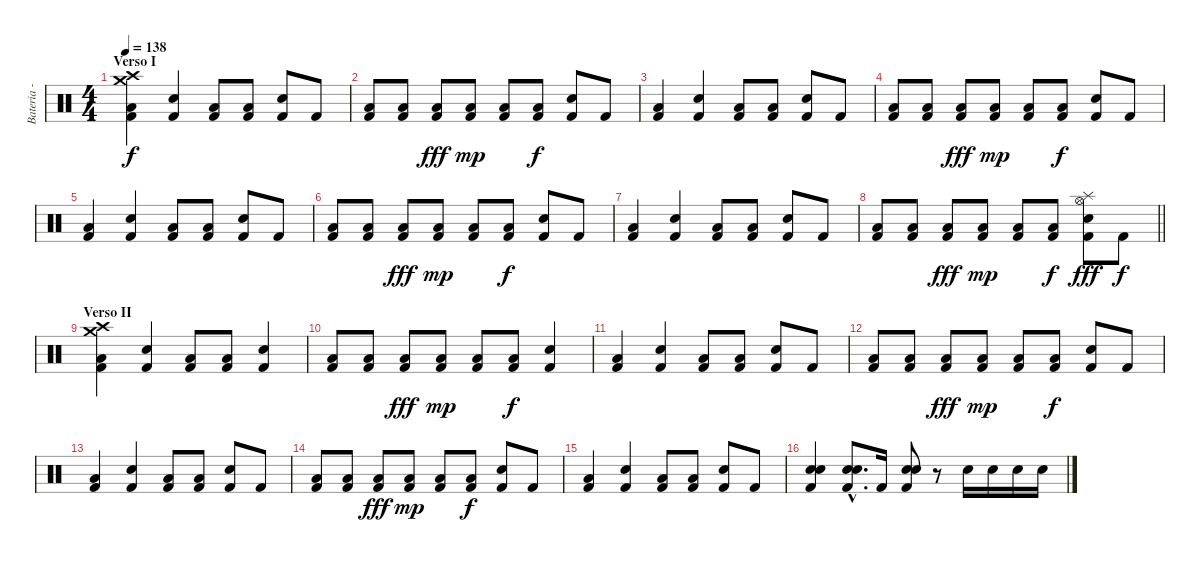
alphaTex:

\track ("Bateria - Larzon" "Bateria - ") {instrument percussion}
\staff {score}
\articulation defaults
\ts (4 4)
\section ("" "Verso I")
\tempo 138
\clef neutral
\ks c
("Low Floor Tom (hit)" "Kick (hit) 2" "Crash high (hit)" "Crash medium (hit)").4{dy f} ("Electric Snare (hit)" "Kick (hit) 2").4 ("Low Floor Tom (hit)" "Kick (hit) 2").8 ("Low Floor Tom (hit)" "Kick (hit) 2").8 ("Electric Snare (hit)" "Kick (hit) 2").8 "Kick (hit) 2".8 |
("Low Floor Tom (hit)" "Kick (hit) 2").8 ("Low Floor Tom (hit)" "Kick (hit) 2").8 ("Low Floor Tom (hit)" "Kick (hit) 2").8{dy fff} ("Low Floor Tom (hit)" "Kick (hit) 2").8{dy mp} ("Low Floor Tom (hit)" "Kick (hit) 2").8 ("Low Floor Tom (hit)" "Kick (hit) 2").8{dy f} ("Electric Snare (hit)" "Kick (hit) 2").8 "Kick (hit) 2".8 |
("Low Floor Tom (hit)" "Kick (hit) 2").4 ("Electric Snare (hit)" "Kick (hit) 2").4 ("Low Floor Tom (hit)" "Kick (hit) 2").8 ("Low Floor Tom (hit)" "Kick (hit) 2").8 ("Electric Snare (hit)" "Kick (hit) 2").8 "Kick (hit) 2".8 |
("Low Floor Tom (hit)" "Kick (hit) 2").8 ("Low Floor Tom (hit)" "Kick (hit) 2").8 ("Low Floor Tom (hit)" "Kick (hit) 2").8{dy fff} ("Low Floor Tom (hit)" "Kick (hit) 2").8{dy mp} ("Low Floor Tom (hit)" "Kick (hit) 2").8 ("Low Floor Tom (hit)" "Kick (hit) 2").8{dy f} ("Electric Snare (hit)" "Kick (hit) 2").8 "Kick (hit) 2".8 |
("Low Floor Tom (hit)" "Kick (hit) 2").4 ("Electric Snare (hit)" "Kick (hit) 2").4 ("Low Floor Tom (hit)" "Kick (hit) 2").8 ("Low Floor Tom (hit)" "Kick (hit) 2").8 ("Electric Snare (hit)" "Kick (hit) 2").8 "Kick (hit) 2".8 |
("Low Floor Tom (hit)" "Kick (hit) 2").8 ("Low Floor Tom (hit)" "Kick (hit) 2").8 ("Low Floor Tom (hit)" "Kick (hit) 2").8{dy fff} ("Low Floor Tom (hit)" "Kick (hit) 2").8{dy mp} ("Low Floor Tom (hit)" "Kick (hit) 2").8 ("Low Floor Tom (hit)" "Kick (hit) 2").8{dy f} ("Electric Snare (hit)" "Kick (hit) 2").8 "Kick (hit) 2".8 |
("Low Floor Tom (hit)" "Kick (hit) 2").4 ("Electric Snare (hit)" "Kick (hit) 2").4 ("Low Floor Tom (hit)" "Kick (hit) 2").8 ("Low Floor Tom (hit)" "Kick (hit) 2").8 ("Electric Snare (hit)" "Kick (hit) 2").8 "Kick (hit) 2".8 |
\barLineRight lightlight
("Low Floor Tom (hit)" "Kick (hit) 2").8 ("Low Floor Tom (hit)" "Kick (hit) 2").8 ("Low Floor Tom (hit)" "Kick (hit) 2").8{dy fff} ("Low Floor Tom (hit)" "Kick (hit) 2").8{dy mp} ("Low Floor Tom (hit)" "Kick (hit) 2").8 ("Low Floor Tom (hit)" "Kick (hit) 2").8{dy f} ("Electric Snare (hit)" "Kick (hit) 2" "Hi-Hat (open)" "Splash (hit)").8{dy fff} "Kick (hit) 2".8{dy f} |
\section ("" "Verso II")
("Low Floor Tom (hit)" "Kick (hit) 2" "Crash high (hit)" "Crash medium (hit)").4 ("Electric Snare (hit)" "Kick (hit) 2").4 ("Low Floor Tom (hit)" "Kick (hit) 2").8 ("Low Floor Tom (hit)" "Kick (hit) 2").8 ("Electric Snare (hit)" "Kick (hit) 2").4 |
("Low Floor Tom (hit)" "Kick (hit) 2").8 ("Low Floor Tom (hit)" "Kick (hit) 2").8 ("Low Floor Tom (hit)" "Kick (hit) 2").8{dy fff} ("Low Floor Tom (hit)" "Kick (hit) 2").8{dy mp} ("Low Floor Tom (hit)" "Kick (hit) 2").8 ("Low Floor Tom (hit)" "Kick (hit) 2").8{dy f} ("Electric Snare (hit)" "Kick (hit) 2").4 |
("Low Floor Tom (hit)" "Kick (hit) 2").4 ("Electric Snare (hit)" "Kick (hit) 2").4 ("Low Floor Tom (hit)" "Kick (hit) 2").8 ("Low Floor Tom (hit)" "Kick (hit) 2").8 ("Electric Snare (hit)" "Kick (hit) 2").8 "Kick (hit) 2".8 |
("Low Floor Tom (hit)" "Kick (hit) 2").8 ("Low Floor Tom (hit)" "Kick (hit) 2").8 ("Low Floor Tom (hit)" "Kick (hit) 2").8{dy fff} ("Low Floor Tom (hit)" "Kick (hit) 2").8{dy mp} ("Low Floor Tom (hit)" "Kick (hit) 2").8 ("Low Floor Tom (hit)" "Kick (hit) 2").8{dy f} ("Electric Snare (hit)" "Kick (hit) 2").8 "Kick (hit) 2".8 |
("Low Floor Tom (hit)" "Kick (hit) 2").4 ("Electric Snare (hit)" "Kick (hit) 2").4 ("Low Floor Tom (hit)" "Kick (hit) 2").8 ("Low Floor Tom (hit)" "Kick (hit) 2").8 ("Electric Snare (hit)" "Kick (hit) 2").8 "Kick (hit) 2".8 |
("Low Floor Tom (hit)" "Kick (hit) 2").8 ("Low Floor Tom (hit)" "Kick (hit) 2").8 ("Low Floor Tom (hit)" "Kick (hit) 2").8{dy fff} ("Low Floor Tom (hit)" "Kick (hit) 2").8{dy mp} ("Low Floor Tom (hit)" "Kick (hit) 2").8 ("Low Floor Tom (hit)" "Kick (hit) 2").8{dy f} ("Electric Snare (hit)" "Kick (hit) 2").8 "Kick (hit) 2".8 |
("Low Floor Tom (hit)" "Kick (hit) 2").4 ("Electric Snare (hit)" "Kick (hit) 2").4 ("Low Floor Tom (hit)" "Kick (hit) 2").8 ("Low Floor Tom (hit)" "Kick (hit) 2").8 ("Electric Snare (hit)" "Kick (hit) 2").8 "Kick (hit) 2".8 |
("Electric Snare (hit)" "Electric Snare (hit)" "Kick (hit) 2").4 ("Electric Snare (hit)"{hac} "Electric Snare (hit)"{hac} "Kick (hit) 2"{hac}).8{d} "Kick (hit) 2".16 ("Electric Snare (hit)" "Electric Snare (hit)" "Kick (hit) 2").8 r.8 "Electric Snare (hit)".16 "Electric Snare (hit)".16 "Electric Snare (hit)".16 "Electric Snare (hit)".16
